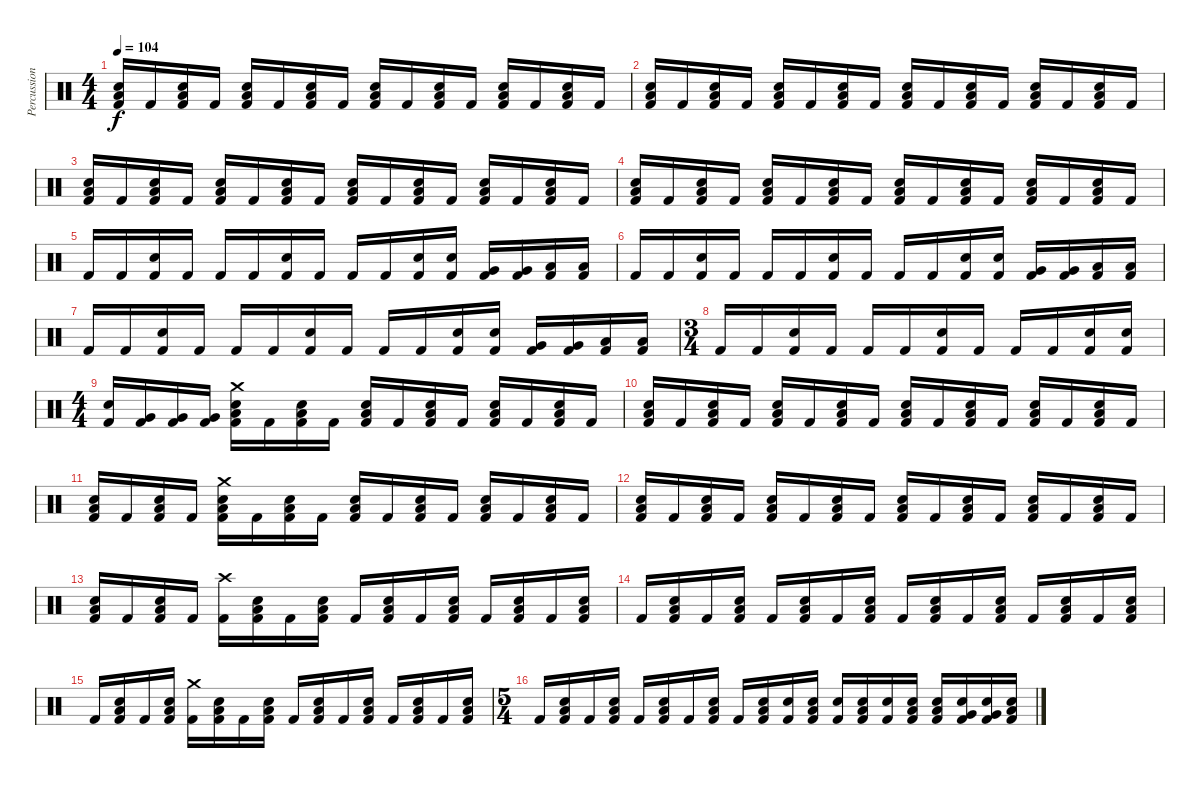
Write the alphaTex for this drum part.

\track ("Percussion" "Percussion") {instrument percussion}
\staff {score}
\articulation defaults
\ts (4 4)
\tempo 104
\clef neutral
\ks c
("Low Floor Tom (hit)" "Snare (hit) 2" "Kick (hit) 2").16{dy f} "Kick (hit) 2".16 ("Low Floor Tom (hit)" "Snare (hit) 2" "Kick (hit) 2").16 "Kick (hit) 2".16 ("Low Floor Tom (hit)" "Snare (hit) 2" "Kick (hit) 2").16 "Kick (hit) 2".16 ("Low Floor Tom (hit)" "Snare (hit) 2" "Kick (hit) 2").16 "Kick (hit) 2".16 ("Low Floor Tom (hit)" "Snare (hit) 2" "Kick (hit) 2").16 "Kick (hit) 2".16 ("Low Floor Tom (hit)" "Snare (hit) 2" "Kick (hit) 2").16 "Kick (hit) 2".16 ("Low Floor Tom (hit)" "Snare (hit) 2" "Kick (hit) 2").16 "Kick (hit) 2".16 ("Low Floor Tom (hit)" "Snare (hit) 2" "Kick (hit) 2").16 "Kick (hit) 2".16 |
("Low Floor Tom (hit)" "Snare (hit) 2" "Kick (hit) 2").16 "Kick (hit) 2".16 ("Low Floor Tom (hit)" "Snare (hit) 2" "Kick (hit) 2").16 "Kick (hit) 2".16 ("Low Floor Tom (hit)" "Snare (hit) 2" "Kick (hit) 2").16 "Kick (hit) 2".16 ("Low Floor Tom (hit)" "Snare (hit) 2" "Kick (hit) 2").16 "Kick (hit) 2".16 ("Low Floor Tom (hit)" "Snare (hit) 2" "Kick (hit) 2").16 "Kick (hit) 2".16 ("Low Floor Tom (hit)" "Snare (hit) 2" "Kick (hit) 2").16 "Kick (hit) 2".16 ("Low Floor Tom (hit)" "Snare (hit) 2" "Kick (hit) 2").16 "Kick (hit) 2".16 ("Low Floor Tom (hit)" "Snare (hit) 2" "Kick (hit) 2").16 "Kick (hit) 2".16 |
("Low Floor Tom (hit)" "Snare (hit) 2" "Kick (hit) 2").16 "Kick (hit) 2".16 ("Low Floor Tom (hit)" "Snare (hit) 2" "Kick (hit) 2").16 "Kick (hit) 2".16 ("Low Floor Tom (hit)" "Snare (hit) 2" "Kick (hit) 2").16 "Kick (hit) 2".16 ("Low Floor Tom (hit)" "Snare (hit) 2" "Kick (hit) 2").16 "Kick (hit) 2".16 ("Low Floor Tom (hit)" "Snare (hit) 2" "Kick (hit) 2").16 "Kick (hit) 2".16 ("Low Floor Tom (hit)" "Snare (hit) 2" "Kick (hit) 2").16 "Kick (hit) 2".16 ("Low Floor Tom (hit)" "Snare (hit) 2" "Kick (hit) 2").16 "Kick (hit) 2".16 ("Low Floor Tom (hit)" "Snare (hit) 2" "Kick (hit) 2").16 "Kick (hit) 2".16 |
("Low Floor Tom (hit)" "Snare (hit) 2" "Kick (hit) 2").16 "Kick (hit) 2".16 ("Low Floor Tom (hit)" "Snare (hit) 2" "Kick (hit) 2").16 "Kick (hit) 2".16 ("Low Floor Tom (hit)" "Snare (hit) 2" "Kick (hit) 2").16 "Kick (hit) 2".16 ("Low Floor Tom (hit)" "Snare (hit) 2" "Kick (hit) 2").16 "Kick (hit) 2".16 ("Low Floor Tom (hit)" "Snare (hit) 2" "Kick (hit) 2").16 "Kick (hit) 2".16 ("Low Floor Tom (hit)" "Snare (hit) 2" "Kick (hit) 2").16 "Kick (hit) 2".16 ("Low Floor Tom (hit)" "Snare (hit) 2" "Kick (hit) 2").16 "Kick (hit) 2".16 ("Low Floor Tom (hit)" "Snare (hit) 2" "Kick (hit) 2").16 "Kick (hit) 2".16 |
"Kick (hit) 2".16 "Kick (hit) 2".16 ("Snare (hit) 2" "Kick (hit) 2").16 "Kick (hit) 2".16 "Kick (hit) 2".16 "Kick (hit) 2".16 ("Snare (hit) 2" "Kick (hit) 2").16 "Kick (hit) 2".16 "Kick (hit) 2".16 "Kick (hit) 2".16 ("Snare (hit) 2" "Kick (hit) 2").16 ("Snare (hit) 2" "Kick (hit) 2").16 ("Very Low Tom (hit)" "Kick (hit) 2").16 ("Very Low Tom (hit)" "Kick (hit) 2").16 ("Low Floor Tom (hit)" "Kick (hit) 2").16 ("Low Floor Tom (hit)" "Kick (hit) 2").16 |
"Kick (hit) 2".16 "Kick (hit) 2".16 ("Snare (hit) 2" "Kick (hit) 2").16 "Kick (hit) 2".16 "Kick (hit) 2".16 "Kick (hit) 2".16 ("Snare (hit) 2" "Kick (hit) 2").16 "Kick (hit) 2".16 "Kick (hit) 2".16 "Kick (hit) 2".16 ("Snare (hit) 2" "Kick (hit) 2").16 ("Snare (hit) 2" "Kick (hit) 2").16 ("Very Low Tom (hit)" "Kick (hit) 2").16 ("Very Low Tom (hit)" "Kick (hit) 2").16 ("Low Floor Tom (hit)" "Kick (hit) 2").16 ("Low Floor Tom (hit)" "Kick (hit) 2").16 |
"Kick (hit) 2".16 "Kick (hit) 2".16 ("Snare (hit) 2" "Kick (hit) 2").16 "Kick (hit) 2".16 "Kick (hit) 2".16 "Kick (hit) 2".16 ("Snare (hit) 2" "Kick (hit) 2").16 "Kick (hit) 2".16 "Kick (hit) 2".16 "Kick (hit) 2".16 ("Snare (hit) 2" "Kick (hit) 2").16 ("Snare (hit) 2" "Kick (hit) 2").16 ("Very Low Tom (hit)" "Kick (hit) 2").16 ("Very Low Tom (hit)" "Kick (hit) 2").16 ("Low Floor Tom (hit)" "Kick (hit) 2").16 ("Low Floor Tom (hit)" "Kick (hit) 2").16 |
\ts (3 4)
"Kick (hit) 2".16 "Kick (hit) 2".16 ("Snare (hit) 2" "Kick (hit) 2").16 "Kick (hit) 2".16 "Kick (hit) 2".16 "Kick (hit) 2".16 ("Snare (hit) 2" "Kick (hit) 2").16 "Kick (hit) 2".16 "Kick (hit) 2".16 "Kick (hit) 2".16 ("Snare (hit) 2" "Kick (hit) 2").16 ("Snare (hit) 2" "Kick (hit) 2").16 |
\ts (4 4)
("Snare (hit) 2" "Kick (hit) 2").16 ("Very Low Tom (hit)" "Kick (hit) 2").16 ("Very Low Tom (hit)" "Kick (hit) 2").16 ("Very Low Tom (hit)" "Kick (hit) 2").16 ("Crash medium (hit)" "Low Floor Tom (hit)" "Snare (hit) 2" "Kick (hit) 2").16 "Kick (hit) 2".16 ("Low Floor Tom (hit)" "Snare (hit) 2" "Kick (hit) 2").16 "Kick (hit) 2".16 ("Low Floor Tom (hit)" "Snare (hit) 2" "Kick (hit) 2").16 "Kick (hit) 2".16 ("Low Floor Tom (hit)" "Snare (hit) 2" "Kick (hit) 2").16 "Kick (hit) 2".16 ("Low Floor Tom (hit)" "Snare (hit) 2" "Kick (hit) 2").16 "Kick (hit) 2".16 ("Low Floor Tom (hit)" "Snare (hit) 2" "Kick (hit) 2").16 "Kick (hit) 2".16 |
("Low Floor Tom (hit)" "Snare (hit) 2" "Kick (hit) 2").16 "Kick (hit) 2".16 ("Low Floor Tom (hit)" "Snare (hit) 2" "Kick (hit) 2").16 "Kick (hit) 2".16 ("Low Floor Tom (hit)" "Snare (hit) 2" "Kick (hit) 2").16 "Kick (hit) 2".16 ("Low Floor Tom (hit)" "Snare (hit) 2" "Kick (hit) 2").16 "Kick (hit) 2".16 ("Low Floor Tom (hit)" "Snare (hit) 2" "Kick (hit) 2").16 "Kick (hit) 2".16 ("Low Floor Tom (hit)" "Snare (hit) 2" "Kick (hit) 2").16 "Kick (hit) 2".16 ("Low Floor Tom (hit)" "Snare (hit) 2" "Kick (hit) 2").16 "Kick (hit) 2".16 ("Low Floor Tom (hit)" "Snare (hit) 2" "Kick (hit) 2").16 "Kick (hit) 2".16 |
("Low Floor Tom (hit)" "Snare (hit) 2" "Kick (hit) 2").16 "Kick (hit) 2".16 ("Low Floor Tom (hit)" "Snare (hit) 2" "Kick (hit) 2").16 "Kick (hit) 2".16 ("Crash medium (hit)" "Low Floor Tom (hit)" "Snare (hit) 2" "Kick (hit) 2").16 "Kick (hit) 2".16 ("Low Floor Tom (hit)" "Snare (hit) 2" "Kick (hit) 2").16 "Kick (hit) 2".16 ("Low Floor Tom (hit)" "Snare (hit) 2" "Kick (hit) 2").16 "Kick (hit) 2".16 ("Low Floor Tom (hit)" "Snare (hit) 2" "Kick (hit) 2").16 "Kick (hit) 2".16 ("Low Floor Tom (hit)" "Snare (hit) 2" "Kick (hit) 2").16 "Kick (hit) 2".16 ("Low Floor Tom (hit)" "Snare (hit) 2" "Kick (hit) 2").16 "Kick (hit) 2".16 |
("Low Floor Tom (hit)" "Snare (hit) 2" "Kick (hit) 2").16 "Kick (hit) 2".16 ("Low Floor Tom (hit)" "Snare (hit) 2" "Kick (hit) 2").16 "Kick (hit) 2".16 ("Low Floor Tom (hit)" "Snare (hit) 2" "Kick (hit) 2").16 "Kick (hit) 2".16 ("Low Floor Tom (hit)" "Snare (hit) 2" "Kick (hit) 2").16 "Kick (hit) 2".16 ("Low Floor Tom (hit)" "Snare (hit) 2" "Kick (hit) 2").16 "Kick (hit) 2".16 ("Low Floor Tom (hit)" "Snare (hit) 2" "Kick (hit) 2").16 "Kick (hit) 2".16 ("Low Floor Tom (hit)" "Snare (hit) 2" "Kick (hit) 2").16 "Kick (hit) 2".16 ("Low Floor Tom (hit)" "Snare (hit) 2" "Kick (hit) 2").16 "Kick (hit) 2".16 |
("Low Floor Tom (hit)" "Snare (hit) 2" "Kick (hit) 2").16 "Kick (hit) 2".16 ("Low Floor Tom (hit)" "Snare (hit) 2" "Kick (hit) 2").16 "Kick (hit) 2".16 ("Crash high (hit)" "Kick (hit) 2").16 ("Low Floor Tom (hit)" "Snare (hit) 2" "Kick (hit) 2").16 "Kick (hit) 2".16 ("Low Floor Tom (hit)" "Snare (hit) 2" "Kick (hit) 2").16 "Kick (hit) 2".16 ("Low Floor Tom (hit)" "Snare (hit) 2" "Kick (hit) 2").16 "Kick (hit) 2".16 ("Low Floor Tom (hit)" "Snare (hit) 2" "Kick (hit) 2").16 "Kick (hit) 2".16 ("Low Floor Tom (hit)" "Snare (hit) 2" "Kick (hit) 2").16 "Kick (hit) 2".16 ("Low Floor Tom (hit)" "Snare (hit) 2" "Kick (hit) 2").16 |
"Kick (hit) 2".16 ("Low Floor Tom (hit)" "Snare (hit) 2" "Kick (hit) 2").16 "Kick (hit) 2".16 ("Low Floor Tom (hit)" "Snare (hit) 2" "Kick (hit) 2").16 "Kick (hit) 2".16 ("Low Floor Tom (hit)" "Snare (hit) 2" "Kick (hit) 2").16 "Kick (hit) 2".16 ("Low Floor Tom (hit)" "Snare (hit) 2" "Kick (hit) 2").16 "Kick (hit) 2".16 ("Low Floor Tom (hit)" "Snare (hit) 2" "Kick (hit) 2").16 "Kick (hit) 2".16 ("Low Floor Tom (hit)" "Snare (hit) 2" "Kick (hit) 2").16 "Kick (hit) 2".16 ("Low Floor Tom (hit)" "Snare (hit) 2" "Kick (hit) 2").16 "Kick (hit) 2".16 ("Low Floor Tom (hit)" "Snare (hit) 2" "Kick (hit) 2").16 |
"Kick (hit) 2".16 ("Low Floor Tom (hit)" "Snare (hit) 2" "Kick (hit) 2").16 "Kick (hit) 2".16 ("Low Floor Tom (hit)" "Snare (hit) 2" "Kick (hit) 2").16 ("Crash medium (hit)" "Kick (hit) 2").16 ("Low Floor Tom (hit)" "Snare (hit) 2" "Kick (hit) 2").16 "Kick (hit) 2".16 ("Low Floor Tom (hit)" "Snare (hit) 2" "Kick (hit) 2").16 "Kick (hit) 2".16 ("Low Floor Tom (hit)" "Snare (hit) 2" "Kick (hit) 2").16 "Kick (hit) 2".16 ("Low Floor Tom (hit)" "Snare (hit) 2" "Kick (hit) 2").16 "Kick (hit) 2".16 ("Low Floor Tom (hit)" "Snare (hit) 2" "Kick (hit) 2").16 "Kick (hit) 2".16 ("Low Floor Tom (hit)" "Snare (hit) 2" "Kick (hit) 2").16 |
\ts (5 4)
"Kick (hit) 2".16 ("Low Floor Tom (hit)" "Snare (hit) 2" "Kick (hit) 2").16 "Kick (hit) 2".16 ("Low Floor Tom (hit)" "Snare (hit) 2" "Kick (hit) 2").16 "Kick (hit) 2".16 ("Low Floor Tom (hit)" "Snare (hit) 2" "Kick (hit) 2").16 "Kick (hit) 2".16 ("Low Floor Tom (hit)" "Snare (hit) 2" "Kick (hit) 2").16 "Kick (hit) 2".16 ("Low Floor Tom (hit)" "Snare (hit) 2" "Kick (hit) 2").16 ("Snare (hit) 2" "Kick (hit) 2").16 ("Low Floor Tom (hit)" "Snare (hit) 2" "Kick (hit) 2").16 ("Snare (hit) 2" "Kick (hit) 2").16 ("Low Floor Tom (hit)" "Snare (hit) 2" "Kick (hit) 2").16 ("Snare (hit) 2" "Kick (hit) 2").16 ("Low Floor Tom (hit)" "Snare (hit) 2" "Kick (hit) 2").16 ("Low Tom (hit)" "Snare (hit) 2" "Kick (hit) 2").16 ("Very Low Tom (hit)" "Snare (hit) 2" "Kick (hit) 2").16 ("Very Low Tom (hit)" "Snare (hit) 2" "Kick (hit) 2").16 ("Low Floor Tom (hit)" "Snare (hit) 2" "Kick (hit) 2").16
